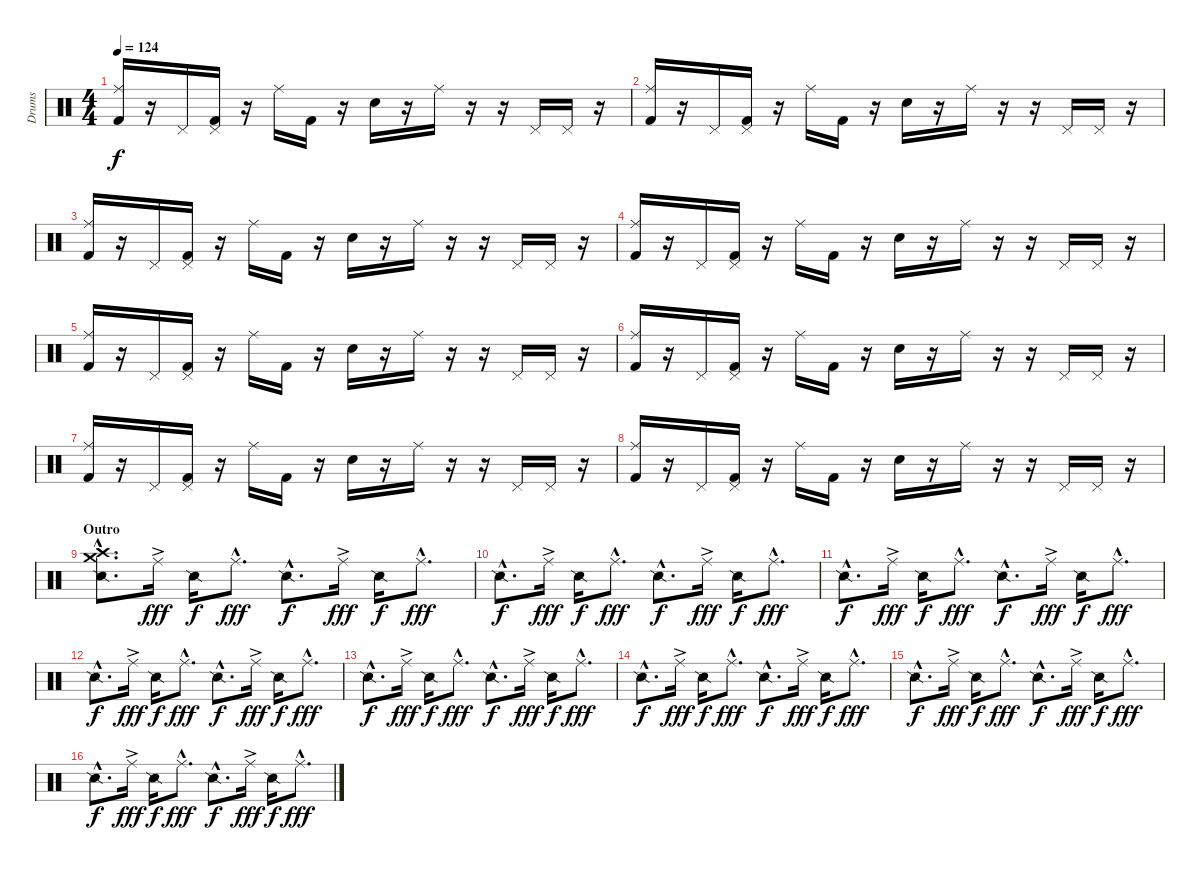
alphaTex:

\track ("Drums" "Drums") {instrument percussion}
\staff {score}
\articulation defaults
\ts (4 4)
\tempo 124
\clef neutral
\ks c
("Ride (middle)" "Kick (hit) 2").16{dy f} r.16 "Pedal Hi-Hat (hit)".16 ("Pedal Hi-Hat (hit)" "Kick (hit) 2").16 r.16 "Ride (middle)".16 "Kick (hit) 2".16 r.16 "Electric Snare (hit)".16 r.16 "Ride (middle)".16 r.16 r.16 "Pedal Hi-Hat (hit)".16 "Pedal Hi-Hat (hit)".16 r.16 |
("Ride (middle)" "Kick (hit) 2").16 r.16 "Pedal Hi-Hat (hit)".16 ("Pedal Hi-Hat (hit)" "Kick (hit) 2").16 r.16 "Ride (middle)".16 "Kick (hit) 2".16 r.16 "Electric Snare (hit)".16 r.16 "Ride (middle)".16 r.16 r.16 "Pedal Hi-Hat (hit)".16 "Pedal Hi-Hat (hit)".16 r.16 |
("Ride (middle)" "Kick (hit) 2").16 r.16 "Pedal Hi-Hat (hit)".16 ("Pedal Hi-Hat (hit)" "Kick (hit) 2").16 r.16 "Ride (middle)".16 "Kick (hit) 2".16 r.16 "Electric Snare (hit)".16 r.16 "Ride (middle)".16 r.16 r.16 "Pedal Hi-Hat (hit)".16 "Pedal Hi-Hat (hit)".16 r.16 |
("Ride (middle)" "Kick (hit) 2").16 r.16 "Pedal Hi-Hat (hit)".16 ("Pedal Hi-Hat (hit)" "Kick (hit) 2").16 r.16 "Ride (middle)".16 "Kick (hit) 2".16 r.16 "Electric Snare (hit)".16 r.16 "Ride (middle)".16 r.16 r.16 "Pedal Hi-Hat (hit)".16 "Pedal Hi-Hat (hit)".16 r.16 |
("Ride (middle)" "Kick (hit) 2").16 r.16 "Pedal Hi-Hat (hit)".16 ("Pedal Hi-Hat (hit)" "Kick (hit) 2").16 r.16 "Ride (middle)".16 "Kick (hit) 2".16 r.16 "Electric Snare (hit)".16 r.16 "Ride (middle)".16 r.16 r.16 "Pedal Hi-Hat (hit)".16 "Pedal Hi-Hat (hit)".16 r.16 |
("Ride (middle)" "Kick (hit) 2").16 r.16 "Pedal Hi-Hat (hit)".16 ("Pedal Hi-Hat (hit)" "Kick (hit) 2").16 r.16 "Ride (middle)".16 "Kick (hit) 2".16 r.16 "Electric Snare (hit)".16 r.16 "Ride (middle)".16 r.16 r.16 "Pedal Hi-Hat (hit)".16 "Pedal Hi-Hat (hit)".16 r.16 |
("Ride (middle)" "Kick (hit) 2").16 r.16 "Pedal Hi-Hat (hit)".16 ("Pedal Hi-Hat (hit)" "Kick (hit) 2").16 r.16 "Ride (middle)".16 "Kick (hit) 2".16 r.16 "Electric Snare (hit)".16 r.16 "Ride (middle)".16 r.16 r.16 "Pedal Hi-Hat (hit)".16 "Pedal Hi-Hat (hit)".16 r.16 |
("Ride (middle)" "Kick (hit) 2").16 r.16 "Pedal Hi-Hat (hit)".16 ("Pedal Hi-Hat (hit)" "Kick (hit) 2").16 r.16 "Ride (middle)".16 "Kick (hit) 2".16 r.16 "Electric Snare (hit)".16 r.16 "Ride (middle)".16 r.16 r.16 "Pedal Hi-Hat (hit)".16 "Pedal Hi-Hat (hit)".16 r.16 |
\section ("" "Outro")
("Snare (side stick) 2"{hac} "Crash medium (hit)"{hac} "Crash high (hit)"{hac}).8{d volume 7} "Ride (middle)"{ac}.16{dy fff} "Snare (side stick) 2".16{dy f} "Ride (middle)"{hac}.8{d dy fff} "Snare (side stick) 2"{hac}.8{d dy f} "Ride (middle)"{ac}.16{dy fff} "Snare (side stick) 2".16{dy f} "Ride (middle)"{hac}.8{d dy fff} |
"Snare (side stick) 2"{hac}.8{d dy f} "Ride (middle)"{ac}.16{dy fff} "Snare (side stick) 2".16{dy f} "Ride (middle)"{hac}.8{d dy fff} "Snare (side stick) 2"{hac}.8{d dy f} "Ride (middle)"{ac}.16{dy fff} "Snare (side stick) 2".16{dy f} "Ride (middle)"{hac}.8{d dy fff} |
"Snare (side stick) 2"{hac}.8{d dy f} "Ride (middle)"{ac}.16{dy fff} "Snare (side stick) 2".16{dy f} "Ride (middle)"{hac}.8{d dy fff} "Snare (side stick) 2"{hac}.8{d dy f} "Ride (middle)"{ac}.16{dy fff} "Snare (side stick) 2".16{dy f} "Ride (middle)"{hac}.8{d dy fff} |
"Snare (side stick) 2"{hac}.8{d dy f} "Ride (middle)"{ac}.16{dy fff} "Snare (side stick) 2".16{dy f} "Ride (middle)"{hac}.8{d dy fff} "Snare (side stick) 2"{hac}.8{d dy f} "Ride (middle)"{ac}.16{dy fff} "Snare (side stick) 2".16{dy f} "Ride (middle)"{hac}.8{d dy fff} |
"Snare (side stick) 2"{hac}.8{d dy f} "Ride (middle)"{ac}.16{dy fff} "Snare (side stick) 2".16{dy f} "Ride (middle)"{hac}.8{d dy fff} "Snare (side stick) 2"{hac}.8{d dy f} "Ride (middle)"{ac}.16{dy fff} "Snare (side stick) 2".16{dy f} "Ride (middle)"{hac}.8{d dy fff} |
"Snare (side stick) 2"{hac}.8{d dy f} "Ride (middle)"{ac}.16{dy fff} "Snare (side stick) 2".16{dy f} "Ride (middle)"{hac}.8{d dy fff} "Snare (side stick) 2"{hac}.8{d dy f} "Ride (middle)"{ac}.16{dy fff} "Snare (side stick) 2".16{dy f} "Ride (middle)"{hac}.8{d dy fff} |
"Snare (side stick) 2"{hac}.8{d dy f} "Ride (middle)"{ac}.16{dy fff} "Snare (side stick) 2".16{dy f} "Ride (middle)"{hac}.8{d dy fff} "Snare (side stick) 2"{hac}.8{d dy f} "Ride (middle)"{ac}.16{dy fff} "Snare (side stick) 2".16{dy f} "Ride (middle)"{hac}.8{d dy fff} |
"Snare (side stick) 2"{hac}.8{d dy f} "Ride (middle)"{ac}.16{dy fff} "Snare (side stick) 2".16{dy f} "Ride (middle)"{hac}.8{d dy fff} "Snare (side stick) 2"{hac}.8{d dy f} "Ride (middle)"{ac}.16{dy fff} "Snare (side stick) 2".16{dy f} "Ride (middle)"{hac}.8{d dy fff}
